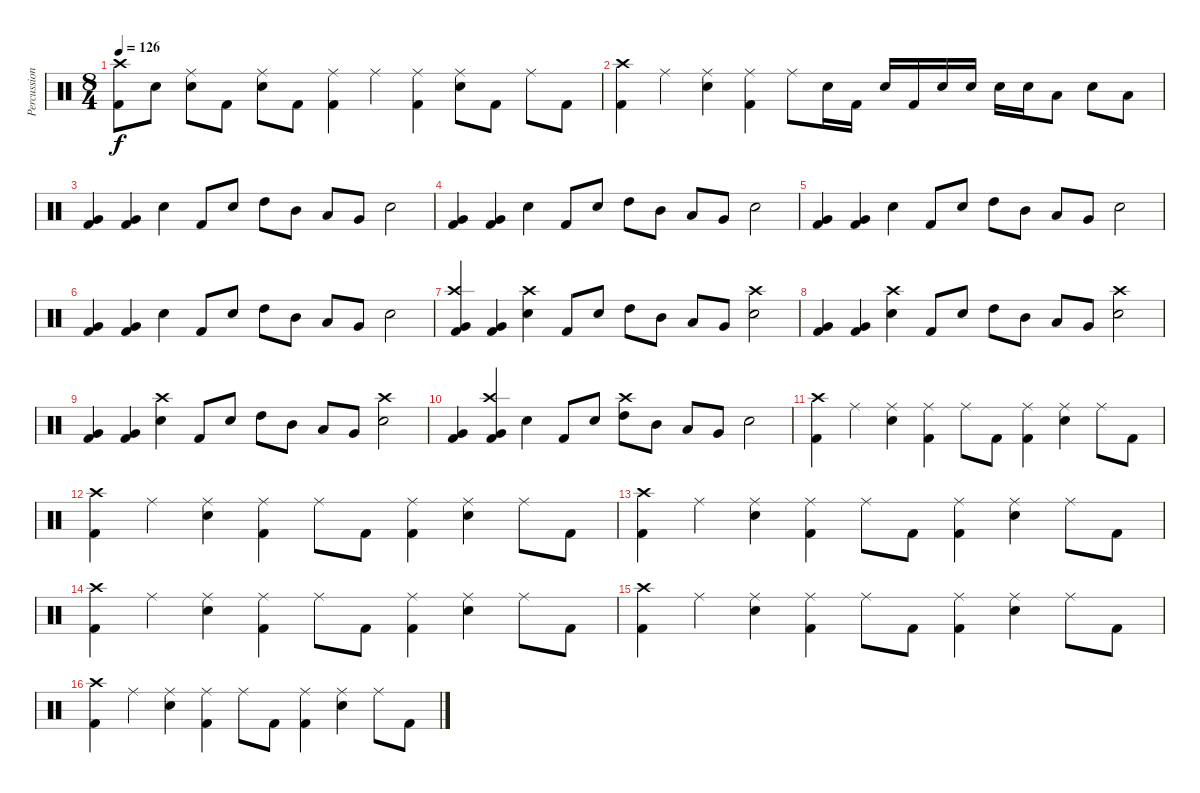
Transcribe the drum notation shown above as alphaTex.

\track ("Percussion" "Percussion") {instrument percussion}
\staff {score}
\articulation defaults
\ts (8 4)
\tempo 126
\clef neutral
\ks c
("Kick (hit) 2" "Crash high (hit)").8{dy f} "Electric Snare (hit)".8 ("Electric Snare (hit)" "Ride (middle)").8 "Kick (hit) 2".8 ("Electric Snare (hit)" "Ride (middle)").8 "Kick (hit) 2".8 ("Kick (hit) 2" "Ride (middle)").4 "Ride (middle)".4 ("Kick (hit) 2" "Ride (middle)").4 ("Electric Snare (hit)" "Ride (middle)").8 "Kick (hit) 2".8 "Ride (middle)".8 "Kick (hit) 2".8 |
("Kick (hit) 2" "Crash high (hit)").4 "Ride (middle)".4 ("Electric Snare (hit)" "Ride (middle)").4 ("Kick (hit) 2" "Ride (middle)").4 "Ride (middle)".8 "Electric Snare (hit)".16 "Kick (hit) 2".16 "Electric Snare (hit)".16 "Kick (hit) 2".16 "Electric Snare (hit)".16 "Electric Snare (hit)".16 "Electric Snare (hit)".16 "Electric Snare (hit)".16 "Low Tom (hit)".8 "Electric Snare (hit)".8 "Low Tom (hit)".8 |
("Kick (hit) 2" "Very Low Tom (hit)").4 ("Kick (hit) 2" "Very Low Tom (hit)").4 "Electric Snare (hit)".4 "Kick (hit) 2".8 "Electric Snare (hit)".8 "High Tom (hit)".8 "Mid Tom (hit)".8 "Low Tom (hit)".8 "Very Low Tom (hit)".8 "Electric Snare (hit)".2 |
("Kick (hit) 2" "Very Low Tom (hit)").4 ("Kick (hit) 2" "Very Low Tom (hit)").4 "Electric Snare (hit)".4 "Kick (hit) 2".8 "Electric Snare (hit)".8 "High Tom (hit)".8 "Mid Tom (hit)".8 "Low Tom (hit)".8 "Very Low Tom (hit)".8 "Electric Snare (hit)".2 |
("Kick (hit) 2" "Very Low Tom (hit)").4 ("Kick (hit) 2" "Very Low Tom (hit)").4 "Electric Snare (hit)".4 "Kick (hit) 2".8 "Electric Snare (hit)".8 "High Tom (hit)".8 "Mid Tom (hit)".8 "Low Tom (hit)".8 "Very Low Tom (hit)".8 "Electric Snare (hit)".2 |
("Kick (hit) 2" "Very Low Tom (hit)").4 ("Kick (hit) 2" "Very Low Tom (hit)").4 "Electric Snare (hit)".4 "Kick (hit) 2".8 "Electric Snare (hit)".8 "High Tom (hit)".8 "Mid Tom (hit)".8 "Low Tom (hit)".8 "Very Low Tom (hit)".8 "Electric Snare (hit)".2 |
("Kick (hit) 2" "Very Low Tom (hit)" "Crash high (hit)").4 ("Kick (hit) 2" "Very Low Tom (hit)").4 ("Electric Snare (hit)" "Crash high (hit)").4 "Kick (hit) 2".8 "Electric Snare (hit)".8 "High Tom (hit)".8 "Mid Tom (hit)".8 "Low Tom (hit)".8 "Very Low Tom (hit)".8 ("Electric Snare (hit)" "Crash high (hit)").2 |
("Kick (hit) 2" "Very Low Tom (hit)").4 ("Kick (hit) 2" "Very Low Tom (hit)").4 ("Electric Snare (hit)" "Crash high (hit)").4 "Kick (hit) 2".8 "Electric Snare (hit)".8 "High Tom (hit)".8 "Mid Tom (hit)".8 "Low Tom (hit)".8 "Very Low Tom (hit)".8 ("Electric Snare (hit)" "Crash high (hit)").2 |
("Kick (hit) 2" "Very Low Tom (hit)").4 ("Kick (hit) 2" "Very Low Tom (hit)").4 ("Electric Snare (hit)" "Crash high (hit)").4 "Kick (hit) 2".8 "Electric Snare (hit)".8 "High Tom (hit)".8 "Mid Tom (hit)".8 "Low Tom (hit)".8 "Very Low Tom (hit)".8 ("Electric Snare (hit)" "Crash high (hit)").2 |
("Kick (hit) 2" "Very Low Tom (hit)").4 ("Kick (hit) 2" "Very Low Tom (hit)" "Crash high (hit)").4 "Electric Snare (hit)".4 "Kick (hit) 2".8 "Electric Snare (hit)".8 ("High Tom (hit)" "Crash high (hit)").8 "Mid Tom (hit)".8 "Low Tom (hit)".8 "Very Low Tom (hit)".8 "Electric Snare (hit)".2 |
("Kick (hit) 2" "Crash high (hit)").4 "Ride (middle)".4 ("Electric Snare (hit)" "Ride (middle)").4 ("Kick (hit) 2" "Ride (middle)").4 "Ride (middle)".8 "Kick (hit) 2".8 ("Kick (hit) 2" "Ride (middle)").4 ("Electric Snare (hit)" "Ride (middle)").4 "Ride (middle)".8 "Kick (hit) 2".8 |
("Kick (hit) 2" "Crash high (hit)").4 "Ride (middle)".4 ("Electric Snare (hit)" "Ride (middle)").4 ("Kick (hit) 2" "Ride (middle)").4 "Ride (middle)".8 "Kick (hit) 2".8 ("Kick (hit) 2" "Ride (middle)").4 ("Electric Snare (hit)" "Ride (middle)").4 "Ride (middle)".8 "Kick (hit) 2".8 |
("Kick (hit) 2" "Crash high (hit)").4 "Ride (middle)".4 ("Electric Snare (hit)" "Ride (middle)").4 ("Kick (hit) 2" "Ride (middle)").4 "Ride (middle)".8 "Kick (hit) 2".8 ("Kick (hit) 2" "Ride (middle)").4 ("Electric Snare (hit)" "Ride (middle)").4 "Ride (middle)".8 "Kick (hit) 2".8 |
("Kick (hit) 2" "Crash high (hit)").4 "Ride (middle)".4 ("Electric Snare (hit)" "Ride (middle)").4 ("Kick (hit) 2" "Ride (middle)").4 "Ride (middle)".8 "Kick (hit) 2".8 ("Kick (hit) 2" "Ride (middle)").4 ("Electric Snare (hit)" "Ride (middle)").4 "Ride (middle)".8 "Kick (hit) 2".8 |
("Kick (hit) 2" "Crash high (hit)").4 "Ride (middle)".4 ("Electric Snare (hit)" "Ride (middle)").4 ("Kick (hit) 2" "Ride (middle)").4 "Ride (middle)".8 "Kick (hit) 2".8 ("Kick (hit) 2" "Ride (middle)").4 ("Electric Snare (hit)" "Ride (middle)").4 "Ride (middle)".8 "Kick (hit) 2".8 |
("Kick (hit) 2" "Crash high (hit)").4 "Ride (middle)".4 ("Electric Snare (hit)" "Ride (middle)").4 ("Kick (hit) 2" "Ride (middle)").4 "Ride (middle)".8 "Kick (hit) 2".8 ("Kick (hit) 2" "Ride (middle)").4 ("Electric Snare (hit)" "Ride (middle)").4 "Ride (middle)".8 "Kick (hit) 2".8
